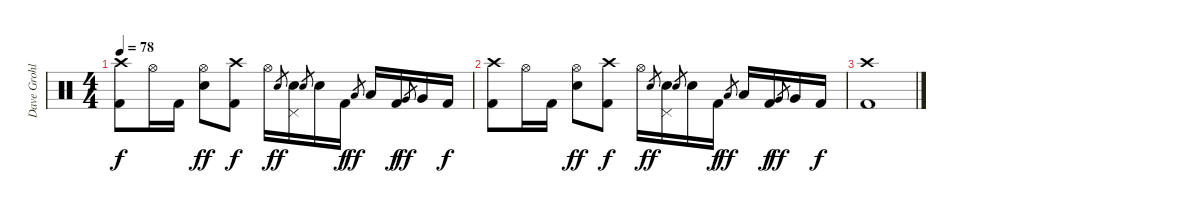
\track ("Dave Grohl" "Dave Grohl") {instrument percussion}
\staff {score}
\articulation defaults
\ts (4 4)
\tempo 78
\clef neutral
\ks c
("Crash high (hit)" "Kick (hit) 2").8{dy f} "Hi-Hat (open)".16 "Kick (hit) 2".16 ("Hi-Hat (open)" "Snare (hit) 2").8{dy ff} ("Crash high (hit)" "Kick (hit) 2").8{dy f} "Hi-Hat (open)".16 "Snare (hit) 2".8{gr dy ff} ("Pedal Hi-Hat (hit)" "Snare (hit) 2").16 "Snare (hit) 2".8{gr} "Snare (hit) 2".16 "Kick (hit) 2".16{dy f} "Low Tom (hit)".8{gr dy ff} "Low Tom (hit)".16 "Kick (hit) 2".16{dy f} "Very Low Tom (hit)".8{gr dy ff} "Very Low Tom (hit)".16 "Kick (hit) 2".16{dy f} |
("Crash high (hit)" "Kick (hit) 2").8 "Hi-Hat (open)".16 "Kick (hit) 2".16 ("Hi-Hat (open)" "Snare (hit) 2").8{dy ff} ("Crash high (hit)" "Kick (hit) 2").8{dy f} "Hi-Hat (open)".16 "Snare (hit) 2".8{gr dy ff} ("Pedal Hi-Hat (hit)" "Snare (hit) 2").16 "Snare (hit) 2".8{gr} "Snare (hit) 2".16 "Kick (hit) 2".16{dy f} "Low Tom (hit)".8{gr dy ff} "Low Tom (hit)".16 "Kick (hit) 2".16{dy f} "Very Low Tom (hit)".8{gr dy ff} "Very Low Tom (hit)".16 "Kick (hit) 2".16{dy f} |
("Crash high (hit)" "Kick (hit) 2").1
